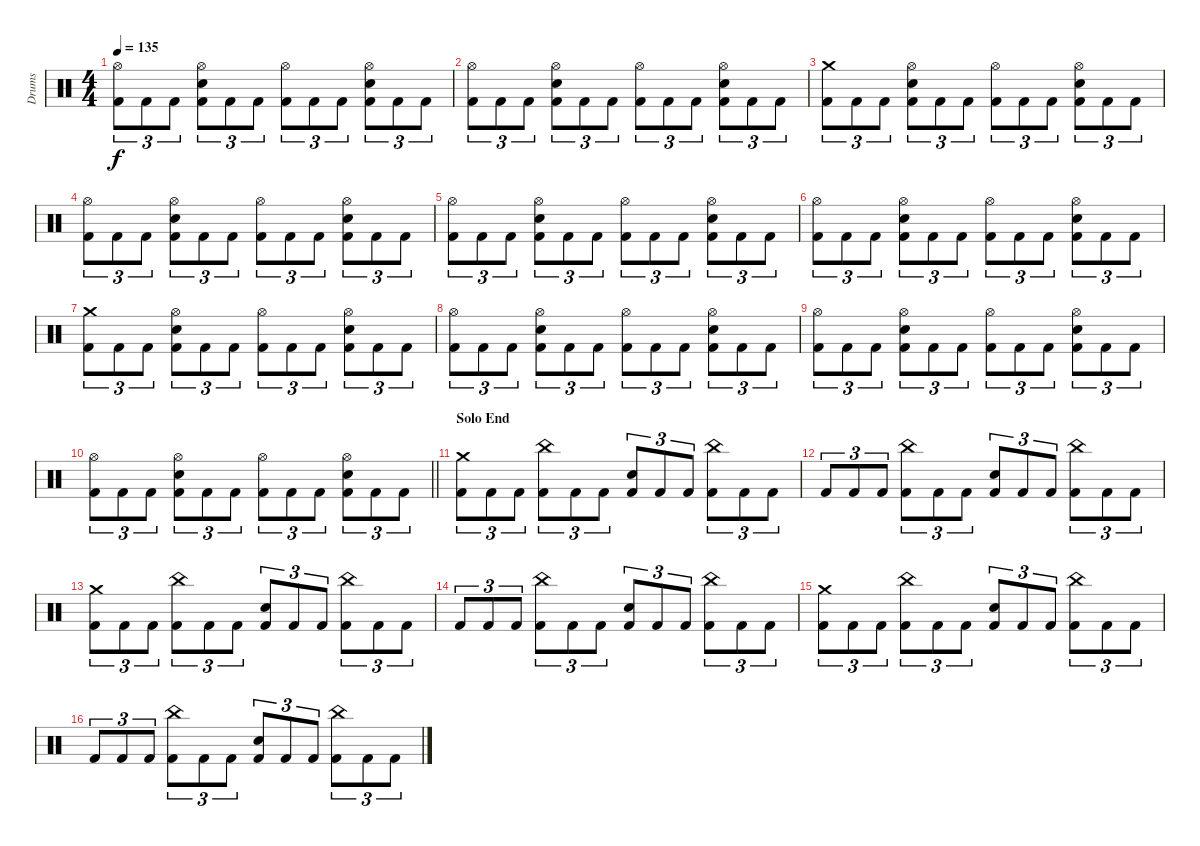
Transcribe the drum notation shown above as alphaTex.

\track ("Drums" "Drums") {instrument percussion}
\staff {score}
\articulation defaults
\ts (4 4)
\tempo 135
\clef neutral
\ks c
("Hi-Hat (open)" "Kick (hit) 2").8{tu (3 2) dy f} "Kick (hit) 2".8{tu (3 2)} "Kick (hit) 2".8{tu (3 2)} ("Hi-Hat (open)" "Snare (hit) 2" "Kick (hit) 2").8{tu (3 2)} "Kick (hit) 2".8{tu (3 2)} "Kick (hit) 2".8{tu (3 2)} ("Hi-Hat (open)" "Kick (hit) 2").8{tu (3 2)} "Kick (hit) 2".8{tu (3 2)} "Kick (hit) 2".8{tu (3 2)} ("Hi-Hat (open)" "Snare (hit) 2" "Kick (hit) 2").8{tu (3 2)} "Kick (hit) 2".8{tu (3 2)} "Kick (hit) 2".8{tu (3 2)} |
("Hi-Hat (open)" "Kick (hit) 2").8{tu (3 2)} "Kick (hit) 2".8{tu (3 2)} "Kick (hit) 2".8{tu (3 2)} ("Hi-Hat (open)" "Snare (hit) 2" "Kick (hit) 2").8{tu (3 2)} "Kick (hit) 2".8{tu (3 2)} "Kick (hit) 2".8{tu (3 2)} ("Hi-Hat (open)" "Kick (hit) 2").8{tu (3 2)} "Kick (hit) 2".8{tu (3 2)} "Kick (hit) 2".8{tu (3 2)} ("Hi-Hat (open)" "Snare (hit) 2" "Kick (hit) 2").8{tu (3 2)} "Kick (hit) 2".8{tu (3 2)} "Kick (hit) 2".8{tu (3 2)} |
("Crash medium (hit)" "Kick (hit) 2").8{tu (3 2)} "Kick (hit) 2".8{tu (3 2)} "Kick (hit) 2".8{tu (3 2)} ("Hi-Hat (open)" "Snare (hit) 2" "Kick (hit) 2").8{tu (3 2)} "Kick (hit) 2".8{tu (3 2)} "Kick (hit) 2".8{tu (3 2)} ("Hi-Hat (open)" "Kick (hit) 2").8{tu (3 2)} "Kick (hit) 2".8{tu (3 2)} "Kick (hit) 2".8{tu (3 2)} ("Hi-Hat (open)" "Snare (hit) 2" "Kick (hit) 2").8{tu (3 2)} "Kick (hit) 2".8{tu (3 2)} "Kick (hit) 2".8{tu (3 2)} |
("Hi-Hat (open)" "Kick (hit) 2").8{tu (3 2)} "Kick (hit) 2".8{tu (3 2)} "Kick (hit) 2".8{tu (3 2)} ("Hi-Hat (open)" "Snare (hit) 2" "Kick (hit) 2").8{tu (3 2)} "Kick (hit) 2".8{tu (3 2)} "Kick (hit) 2".8{tu (3 2)} ("Hi-Hat (open)" "Kick (hit) 2").8{tu (3 2)} "Kick (hit) 2".8{tu (3 2)} "Kick (hit) 2".8{tu (3 2)} ("Hi-Hat (open)" "Snare (hit) 2" "Kick (hit) 2").8{tu (3 2)} "Kick (hit) 2".8{tu (3 2)} "Kick (hit) 2".8{tu (3 2)} |
("Hi-Hat (open)" "Kick (hit) 2").8{tu (3 2)} "Kick (hit) 2".8{tu (3 2)} "Kick (hit) 2".8{tu (3 2)} ("Hi-Hat (open)" "Snare (hit) 2" "Kick (hit) 2").8{tu (3 2)} "Kick (hit) 2".8{tu (3 2)} "Kick (hit) 2".8{tu (3 2)} ("Hi-Hat (open)" "Kick (hit) 2").8{tu (3 2)} "Kick (hit) 2".8{tu (3 2)} "Kick (hit) 2".8{tu (3 2)} ("Hi-Hat (open)" "Snare (hit) 2" "Kick (hit) 2").8{tu (3 2)} "Kick (hit) 2".8{tu (3 2)} "Kick (hit) 2".8{tu (3 2)} |
("Hi-Hat (open)" "Kick (hit) 2").8{tu (3 2)} "Kick (hit) 2".8{tu (3 2)} "Kick (hit) 2".8{tu (3 2)} ("Hi-Hat (open)" "Snare (hit) 2" "Kick (hit) 2").8{tu (3 2)} "Kick (hit) 2".8{tu (3 2)} "Kick (hit) 2".8{tu (3 2)} ("Hi-Hat (open)" "Kick (hit) 2").8{tu (3 2)} "Kick (hit) 2".8{tu (3 2)} "Kick (hit) 2".8{tu (3 2)} ("Hi-Hat (open)" "Snare (hit) 2" "Kick (hit) 2").8{tu (3 2)} "Kick (hit) 2".8{tu (3 2)} "Kick (hit) 2".8{tu (3 2)} |
("Crash medium (hit)" "Kick (hit) 2").8{tu (3 2)} "Kick (hit) 2".8{tu (3 2)} "Kick (hit) 2".8{tu (3 2)} ("Hi-Hat (open)" "Snare (hit) 2" "Kick (hit) 2").8{tu (3 2)} "Kick (hit) 2".8{tu (3 2)} "Kick (hit) 2".8{tu (3 2)} ("Hi-Hat (open)" "Kick (hit) 2").8{tu (3 2)} "Kick (hit) 2".8{tu (3 2)} "Kick (hit) 2".8{tu (3 2)} ("Hi-Hat (open)" "Snare (hit) 2" "Kick (hit) 2").8{tu (3 2)} "Kick (hit) 2".8{tu (3 2)} "Kick (hit) 2".8{tu (3 2)} |
("Hi-Hat (open)" "Kick (hit) 2").8{tu (3 2)} "Kick (hit) 2".8{tu (3 2)} "Kick (hit) 2".8{tu (3 2)} ("Hi-Hat (open)" "Snare (hit) 2" "Kick (hit) 2").8{tu (3 2)} "Kick (hit) 2".8{tu (3 2)} "Kick (hit) 2".8{tu (3 2)} ("Hi-Hat (open)" "Kick (hit) 2").8{tu (3 2)} "Kick (hit) 2".8{tu (3 2)} "Kick (hit) 2".8{tu (3 2)} ("Hi-Hat (open)" "Snare (hit) 2" "Kick (hit) 2").8{tu (3 2)} "Kick (hit) 2".8{tu (3 2)} "Kick (hit) 2".8{tu (3 2)} |
("Hi-Hat (open)" "Kick (hit) 2").8{tu (3 2)} "Kick (hit) 2".8{tu (3 2)} "Kick (hit) 2".8{tu (3 2)} ("Hi-Hat (open)" "Snare (hit) 2" "Kick (hit) 2").8{tu (3 2)} "Kick (hit) 2".8{tu (3 2)} "Kick (hit) 2".8{tu (3 2)} ("Hi-Hat (open)" "Kick (hit) 2").8{tu (3 2)} "Kick (hit) 2".8{tu (3 2)} "Kick (hit) 2".8{tu (3 2)} ("Hi-Hat (open)" "Snare (hit) 2" "Kick (hit) 2").8{tu (3 2)} "Kick (hit) 2".8{tu (3 2)} "Kick (hit) 2".8{tu (3 2)} |
\barLineRight lightlight
("Hi-Hat (open)" "Kick (hit) 2").8{tu (3 2)} "Kick (hit) 2".8{tu (3 2)} "Kick (hit) 2".8{tu (3 2)} ("Hi-Hat (open)" "Snare (hit) 2" "Kick (hit) 2").8{tu (3 2)} "Kick (hit) 2".8{tu (3 2)} "Kick (hit) 2".8{tu (3 2)} ("Hi-Hat (open)" "Kick (hit) 2").8{tu (3 2)} "Kick (hit) 2".8{tu (3 2)} "Kick (hit) 2".8{tu (3 2)} ("Hi-Hat (open)" "Snare (hit) 2" "Kick (hit) 2").8{tu (3 2)} "Kick (hit) 2".8{tu (3 2)} "Kick (hit) 2".8{tu (3 2)} |
\section ("" "Solo End")
("Crash medium (hit)" "Kick (hit) 2").8{tu (3 2)} "Kick (hit) 2".8{tu (3 2)} "Kick (hit) 2".8{tu (3 2)} ("China (hit)" "Kick (hit) 2").8{tu (3 2)} "Kick (hit) 2".8{tu (3 2)} "Kick (hit) 2".8{tu (3 2)} ("Snare (hit) 2" "Kick (hit) 2").8{tu (3 2)} "Kick (hit) 2".8{tu (3 2)} "Kick (hit) 2".8{tu (3 2)} ("China (hit)" "Kick (hit) 2").8{tu (3 2)} "Kick (hit) 2".8{tu (3 2)} "Kick (hit) 2".8{tu (3 2)} |
"Kick (hit) 2".8{tu (3 2)} "Kick (hit) 2".8{tu (3 2)} "Kick (hit) 2".8{tu (3 2)} ("China (hit)" "Kick (hit) 2").8{tu (3 2)} "Kick (hit) 2".8{tu (3 2)} "Kick (hit) 2".8{tu (3 2)} ("Snare (hit) 2" "Kick (hit) 2").8{tu (3 2)} "Kick (hit) 2".8{tu (3 2)} "Kick (hit) 2".8{tu (3 2)} ("China (hit)" "Kick (hit) 2").8{tu (3 2)} "Kick (hit) 2".8{tu (3 2)} "Kick (hit) 2".8{tu (3 2)} |
("Crash medium (hit)" "Kick (hit) 2").8{tu (3 2)} "Kick (hit) 2".8{tu (3 2)} "Kick (hit) 2".8{tu (3 2)} ("China (hit)" "Kick (hit) 2").8{tu (3 2)} "Kick (hit) 2".8{tu (3 2)} "Kick (hit) 2".8{tu (3 2)} ("Snare (hit) 2" "Kick (hit) 2").8{tu (3 2)} "Kick (hit) 2".8{tu (3 2)} "Kick (hit) 2".8{tu (3 2)} ("China (hit)" "Kick (hit) 2").8{tu (3 2)} "Kick (hit) 2".8{tu (3 2)} "Kick (hit) 2".8{tu (3 2)} |
"Kick (hit) 2".8{tu (3 2)} "Kick (hit) 2".8{tu (3 2)} "Kick (hit) 2".8{tu (3 2)} ("China (hit)" "Kick (hit) 2").8{tu (3 2)} "Kick (hit) 2".8{tu (3 2)} "Kick (hit) 2".8{tu (3 2)} ("Snare (hit) 2" "Kick (hit) 2").8{tu (3 2)} "Kick (hit) 2".8{tu (3 2)} "Kick (hit) 2".8{tu (3 2)} ("China (hit)" "Kick (hit) 2").8{tu (3 2)} "Kick (hit) 2".8{tu (3 2)} "Kick (hit) 2".8{tu (3 2)} |
("Crash medium (hit)" "Kick (hit) 2").8{tu (3 2)} "Kick (hit) 2".8{tu (3 2)} "Kick (hit) 2".8{tu (3 2)} ("China (hit)" "Kick (hit) 2").8{tu (3 2)} "Kick (hit) 2".8{tu (3 2)} "Kick (hit) 2".8{tu (3 2)} ("Snare (hit) 2" "Kick (hit) 2").8{tu (3 2)} "Kick (hit) 2".8{tu (3 2)} "Kick (hit) 2".8{tu (3 2)} ("China (hit)" "Kick (hit) 2").8{tu (3 2)} "Kick (hit) 2".8{tu (3 2)} "Kick (hit) 2".8{tu (3 2)} |
"Kick (hit) 2".8{tu (3 2)} "Kick (hit) 2".8{tu (3 2)} "Kick (hit) 2".8{tu (3 2)} ("China (hit)" "Kick (hit) 2").8{tu (3 2)} "Kick (hit) 2".8{tu (3 2)} "Kick (hit) 2".8{tu (3 2)} ("Snare (hit) 2" "Kick (hit) 2").8{tu (3 2)} "Kick (hit) 2".8{tu (3 2)} "Kick (hit) 2".8{tu (3 2)} ("China (hit)" "Kick (hit) 2").8{tu (3 2)} "Kick (hit) 2".8{tu (3 2)} "Kick (hit) 2".8{tu (3 2)}
